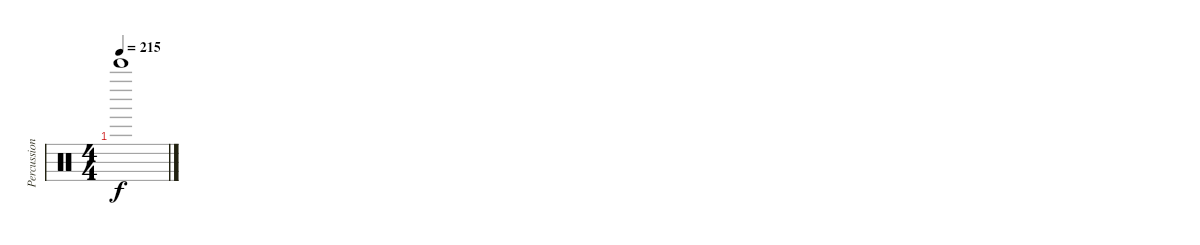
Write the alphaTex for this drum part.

\track ("Percussion" "Percussion") {instrument percussion}
\staff {score}
\articulation defaults
\ts (4 4)
\tempo 215
\clef neutral
\ks c "Bell Tree (hit)".1{dy f}
